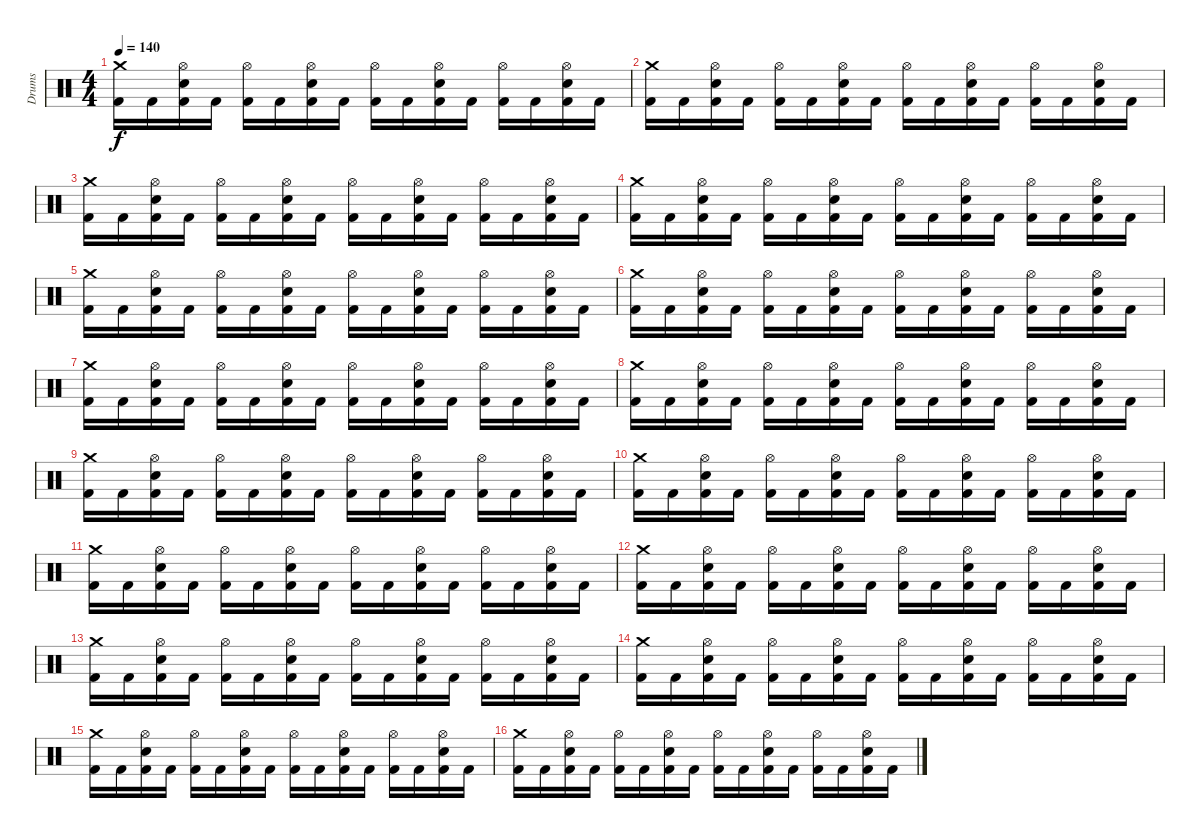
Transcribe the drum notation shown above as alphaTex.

\track ("Drums" "Drums") {instrument percussion}
\staff {score}
\articulation defaults
\ts (4 4)
\tempo 140
\clef neutral
\ks c
("Crash medium (hit)" "Kick (hit) 2").16{dy f} "Kick (hit) 2".16 ("Hi-Hat (open)" "Electric Snare (hit)" "Kick (hit) 2").16 "Kick (hit) 2".16 ("Hi-Hat (open)" "Kick (hit) 2").16 "Kick (hit) 2".16 ("Hi-Hat (open)" "Electric Snare (hit)" "Kick (hit) 2").16 "Kick (hit) 2".16 ("Hi-Hat (open)" "Kick (hit) 2").16 "Kick (hit) 2".16 ("Hi-Hat (open)" "Electric Snare (hit)" "Kick (hit) 2").16 "Kick (hit) 2".16 ("Hi-Hat (open)" "Kick (hit) 2").16 "Kick (hit) 2".16 ("Hi-Hat (open)" "Electric Snare (hit)" "Kick (hit) 2").16 "Kick (hit) 2".16 |
("Crash medium (hit)" "Kick (hit) 2").16 "Kick (hit) 2".16 ("Hi-Hat (open)" "Electric Snare (hit)" "Kick (hit) 2").16 "Kick (hit) 2".16 ("Hi-Hat (open)" "Kick (hit) 2").16 "Kick (hit) 2".16 ("Hi-Hat (open)" "Electric Snare (hit)" "Kick (hit) 2").16 "Kick (hit) 2".16 ("Hi-Hat (open)" "Kick (hit) 2").16 "Kick (hit) 2".16 ("Hi-Hat (open)" "Electric Snare (hit)" "Kick (hit) 2").16 "Kick (hit) 2".16 ("Hi-Hat (open)" "Kick (hit) 2").16 "Kick (hit) 2".16 ("Hi-Hat (open)" "Electric Snare (hit)" "Kick (hit) 2").16 "Kick (hit) 2".16 |
("Crash medium (hit)" "Kick (hit) 2").16 "Kick (hit) 2".16 ("Hi-Hat (open)" "Electric Snare (hit)" "Kick (hit) 2").16 "Kick (hit) 2".16 ("Hi-Hat (open)" "Kick (hit) 2").16 "Kick (hit) 2".16 ("Hi-Hat (open)" "Electric Snare (hit)" "Kick (hit) 2").16 "Kick (hit) 2".16 ("Hi-Hat (open)" "Kick (hit) 2").16 "Kick (hit) 2".16 ("Hi-Hat (open)" "Electric Snare (hit)" "Kick (hit) 2").16 "Kick (hit) 2".16 ("Hi-Hat (open)" "Kick (hit) 2").16 "Kick (hit) 2".16 ("Hi-Hat (open)" "Electric Snare (hit)" "Kick (hit) 2").16 "Kick (hit) 2".16 |
("Crash medium (hit)" "Kick (hit) 2").16 "Kick (hit) 2".16 ("Hi-Hat (open)" "Electric Snare (hit)" "Kick (hit) 2").16 "Kick (hit) 2".16 ("Hi-Hat (open)" "Kick (hit) 2").16 "Kick (hit) 2".16 ("Hi-Hat (open)" "Electric Snare (hit)" "Kick (hit) 2").16 "Kick (hit) 2".16 ("Hi-Hat (open)" "Kick (hit) 2").16 "Kick (hit) 2".16 ("Hi-Hat (open)" "Electric Snare (hit)" "Kick (hit) 2").16 "Kick (hit) 2".16 ("Hi-Hat (open)" "Kick (hit) 2").16 "Kick (hit) 2".16 ("Hi-Hat (open)" "Electric Snare (hit)" "Kick (hit) 2").16 "Kick (hit) 2".16 |
("Crash medium (hit)" "Kick (hit) 2").16 "Kick (hit) 2".16 ("Hi-Hat (open)" "Electric Snare (hit)" "Kick (hit) 2").16 "Kick (hit) 2".16 ("Hi-Hat (open)" "Kick (hit) 2").16 "Kick (hit) 2".16 ("Hi-Hat (open)" "Electric Snare (hit)" "Kick (hit) 2").16 "Kick (hit) 2".16 ("Hi-Hat (open)" "Kick (hit) 2").16 "Kick (hit) 2".16 ("Hi-Hat (open)" "Electric Snare (hit)" "Kick (hit) 2").16 "Kick (hit) 2".16 ("Hi-Hat (open)" "Kick (hit) 2").16 "Kick (hit) 2".16 ("Hi-Hat (open)" "Electric Snare (hit)" "Kick (hit) 2").16 "Kick (hit) 2".16 |
("Crash medium (hit)" "Kick (hit) 2").16 "Kick (hit) 2".16 ("Hi-Hat (open)" "Electric Snare (hit)" "Kick (hit) 2").16 "Kick (hit) 2".16 ("Hi-Hat (open)" "Kick (hit) 2").16 "Kick (hit) 2".16 ("Hi-Hat (open)" "Electric Snare (hit)" "Kick (hit) 2").16 "Kick (hit) 2".16 ("Hi-Hat (open)" "Kick (hit) 2").16 "Kick (hit) 2".16 ("Hi-Hat (open)" "Electric Snare (hit)" "Kick (hit) 2").16 "Kick (hit) 2".16 ("Hi-Hat (open)" "Kick (hit) 2").16 "Kick (hit) 2".16 ("Hi-Hat (open)" "Electric Snare (hit)" "Kick (hit) 2").16 "Kick (hit) 2".16 |
("Crash medium (hit)" "Kick (hit) 2").16 "Kick (hit) 2".16 ("Hi-Hat (open)" "Electric Snare (hit)" "Kick (hit) 2").16 "Kick (hit) 2".16 ("Hi-Hat (open)" "Kick (hit) 2").16 "Kick (hit) 2".16 ("Hi-Hat (open)" "Electric Snare (hit)" "Kick (hit) 2").16 "Kick (hit) 2".16 ("Hi-Hat (open)" "Kick (hit) 2").16 "Kick (hit) 2".16 ("Hi-Hat (open)" "Electric Snare (hit)" "Kick (hit) 2").16 "Kick (hit) 2".16 ("Hi-Hat (open)" "Kick (hit) 2").16 "Kick (hit) 2".16 ("Hi-Hat (open)" "Electric Snare (hit)" "Kick (hit) 2").16 "Kick (hit) 2".16 |
("Crash medium (hit)" "Kick (hit) 2").16 "Kick (hit) 2".16 ("Hi-Hat (open)" "Electric Snare (hit)" "Kick (hit) 2").16 "Kick (hit) 2".16 ("Hi-Hat (open)" "Kick (hit) 2").16 "Kick (hit) 2".16 ("Hi-Hat (open)" "Electric Snare (hit)" "Kick (hit) 2").16 "Kick (hit) 2".16 ("Hi-Hat (open)" "Kick (hit) 2").16 "Kick (hit) 2".16 ("Hi-Hat (open)" "Electric Snare (hit)" "Kick (hit) 2").16 "Kick (hit) 2".16 ("Hi-Hat (open)" "Kick (hit) 2").16 "Kick (hit) 2".16 ("Hi-Hat (open)" "Electric Snare (hit)" "Kick (hit) 2").16 "Kick (hit) 2".16 |
("Crash medium (hit)" "Kick (hit) 2").16 "Kick (hit) 2".16 ("Hi-Hat (open)" "Electric Snare (hit)" "Kick (hit) 2").16 "Kick (hit) 2".16 ("Hi-Hat (open)" "Kick (hit) 2").16 "Kick (hit) 2".16 ("Hi-Hat (open)" "Electric Snare (hit)" "Kick (hit) 2").16 "Kick (hit) 2".16 ("Hi-Hat (open)" "Kick (hit) 2").16 "Kick (hit) 2".16 ("Hi-Hat (open)" "Electric Snare (hit)" "Kick (hit) 2").16 "Kick (hit) 2".16 ("Hi-Hat (open)" "Kick (hit) 2").16 "Kick (hit) 2".16 ("Hi-Hat (open)" "Electric Snare (hit)" "Kick (hit) 2").16 "Kick (hit) 2".16 |
("Crash medium (hit)" "Kick (hit) 2").16 "Kick (hit) 2".16 ("Hi-Hat (open)" "Electric Snare (hit)" "Kick (hit) 2").16 "Kick (hit) 2".16 ("Hi-Hat (open)" "Kick (hit) 2").16 "Kick (hit) 2".16 ("Hi-Hat (open)" "Electric Snare (hit)" "Kick (hit) 2").16 "Kick (hit) 2".16 ("Hi-Hat (open)" "Kick (hit) 2").16 "Kick (hit) 2".16 ("Hi-Hat (open)" "Electric Snare (hit)" "Kick (hit) 2").16 "Kick (hit) 2".16 ("Hi-Hat (open)" "Kick (hit) 2").16 "Kick (hit) 2".16 ("Hi-Hat (open)" "Electric Snare (hit)" "Kick (hit) 2").16 "Kick (hit) 2".16 |
("Crash medium (hit)" "Kick (hit) 2").16 "Kick (hit) 2".16 ("Hi-Hat (open)" "Electric Snare (hit)" "Kick (hit) 2").16 "Kick (hit) 2".16 ("Hi-Hat (open)" "Kick (hit) 2").16 "Kick (hit) 2".16 ("Hi-Hat (open)" "Electric Snare (hit)" "Kick (hit) 2").16 "Kick (hit) 2".16 ("Hi-Hat (open)" "Kick (hit) 2").16 "Kick (hit) 2".16 ("Hi-Hat (open)" "Electric Snare (hit)" "Kick (hit) 2").16 "Kick (hit) 2".16 ("Hi-Hat (open)" "Kick (hit) 2").16 "Kick (hit) 2".16 ("Hi-Hat (open)" "Electric Snare (hit)" "Kick (hit) 2").16 "Kick (hit) 2".16 |
("Crash medium (hit)" "Kick (hit) 2").16 "Kick (hit) 2".16 ("Hi-Hat (open)" "Electric Snare (hit)" "Kick (hit) 2").16 "Kick (hit) 2".16 ("Hi-Hat (open)" "Kick (hit) 2").16 "Kick (hit) 2".16 ("Hi-Hat (open)" "Electric Snare (hit)" "Kick (hit) 2").16 "Kick (hit) 2".16 ("Hi-Hat (open)" "Kick (hit) 2").16 "Kick (hit) 2".16 ("Hi-Hat (open)" "Electric Snare (hit)" "Kick (hit) 2").16 "Kick (hit) 2".16 ("Hi-Hat (open)" "Kick (hit) 2").16 "Kick (hit) 2".16 ("Hi-Hat (open)" "Electric Snare (hit)" "Kick (hit) 2").16 "Kick (hit) 2".16 |
("Crash medium (hit)" "Kick (hit) 2").16 "Kick (hit) 2".16 ("Hi-Hat (open)" "Electric Snare (hit)" "Kick (hit) 2").16 "Kick (hit) 2".16 ("Hi-Hat (open)" "Kick (hit) 2").16 "Kick (hit) 2".16 ("Hi-Hat (open)" "Electric Snare (hit)" "Kick (hit) 2").16 "Kick (hit) 2".16 ("Hi-Hat (open)" "Kick (hit) 2").16 "Kick (hit) 2".16 ("Hi-Hat (open)" "Electric Snare (hit)" "Kick (hit) 2").16 "Kick (hit) 2".16 ("Hi-Hat (open)" "Kick (hit) 2").16 "Kick (hit) 2".16 ("Hi-Hat (open)" "Electric Snare (hit)" "Kick (hit) 2").16 "Kick (hit) 2".16 |
("Crash medium (hit)" "Kick (hit) 2").16 "Kick (hit) 2".16 ("Hi-Hat (open)" "Electric Snare (hit)" "Kick (hit) 2").16 "Kick (hit) 2".16 ("Hi-Hat (open)" "Kick (hit) 2").16 "Kick (hit) 2".16 ("Hi-Hat (open)" "Electric Snare (hit)" "Kick (hit) 2").16 "Kick (hit) 2".16 ("Hi-Hat (open)" "Kick (hit) 2").16 "Kick (hit) 2".16 ("Hi-Hat (open)" "Electric Snare (hit)" "Kick (hit) 2").16 "Kick (hit) 2".16 ("Hi-Hat (open)" "Kick (hit) 2").16 "Kick (hit) 2".16 ("Hi-Hat (open)" "Electric Snare (hit)" "Kick (hit) 2").16 "Kick (hit) 2".16 |
("Crash medium (hit)" "Kick (hit) 2").16 "Kick (hit) 2".16 ("Hi-Hat (open)" "Electric Snare (hit)" "Kick (hit) 2").16 "Kick (hit) 2".16 ("Hi-Hat (open)" "Kick (hit) 2").16 "Kick (hit) 2".16 ("Hi-Hat (open)" "Electric Snare (hit)" "Kick (hit) 2").16 "Kick (hit) 2".16 ("Hi-Hat (open)" "Kick (hit) 2").16 "Kick (hit) 2".16 ("Hi-Hat (open)" "Electric Snare (hit)" "Kick (hit) 2").16 "Kick (hit) 2".16 ("Hi-Hat (open)" "Kick (hit) 2").16 "Kick (hit) 2".16 ("Hi-Hat (open)" "Electric Snare (hit)" "Kick (hit) 2").16 "Kick (hit) 2".16 |
("Crash medium (hit)" "Kick (hit) 2").16 "Kick (hit) 2".16 ("Hi-Hat (open)" "Electric Snare (hit)" "Kick (hit) 2").16 "Kick (hit) 2".16 ("Hi-Hat (open)" "Kick (hit) 2").16 "Kick (hit) 2".16 ("Hi-Hat (open)" "Electric Snare (hit)" "Kick (hit) 2").16 "Kick (hit) 2".16 ("Hi-Hat (open)" "Kick (hit) 2").16 "Kick (hit) 2".16 ("Hi-Hat (open)" "Electric Snare (hit)" "Kick (hit) 2").16 "Kick (hit) 2".16 ("Hi-Hat (open)" "Kick (hit) 2").16 "Kick (hit) 2".16 ("Hi-Hat (open)" "Electric Snare (hit)" "Kick (hit) 2").16 "Kick (hit) 2".16
